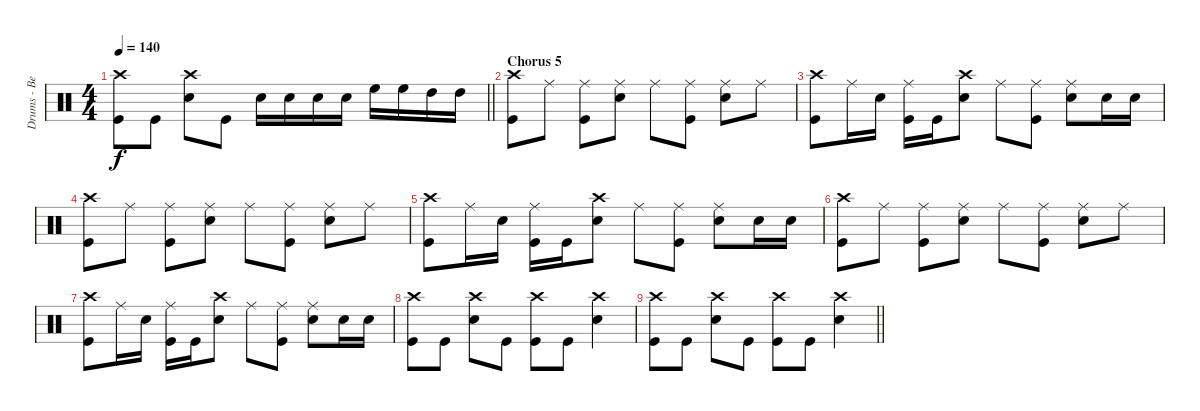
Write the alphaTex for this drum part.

\track ("Drums - Ben Johnston" "Drums - Be") {instrument percussion}
\staff {score}
\articulation defaults
\ts (4 4)
\tempo 140
\clef neutral
\barLineRight lightlight
\ks c
("Crash high (hit)" "Kick (hit)").8{dy f} "Kick (hit)".8 ("Crash high (hit)" "Snare (hit) 2").8 "Kick (hit)".8 "Snare (hit) 2".16 "Snare (hit) 2".16 "Snare (hit) 2".16 "Snare (hit) 2".16 "High Floor Tom (hit)".16 "High Floor Tom (hit)".16 "High Tom (hit)".16 "High Tom (hit)".16 |
\section ("" "Chorus 5")
("Crash high (hit)" "Kick (hit)").8 "Ride (middle)".8 ("Ride (middle)" "Kick (hit)").8 ("Ride (middle)" "Snare (hit) 2").8 "Ride (middle)".8 ("Ride (middle)" "Kick (hit)").8 ("Ride (middle)" "Snare (hit) 2").8 "Ride (middle)".8 |
("Crash high (hit)" "Kick (hit)").8 "Ride (middle)".16 "Snare (hit) 2".16 ("Ride (middle)" "Kick (hit)").16 "Kick (hit)".16 ("Crash high (hit)" "Snare (hit) 2").8 "Ride (middle)".8 ("Ride (middle)" "Kick (hit)").8 ("Ride (middle)" "Snare (hit) 2").8 "Snare (hit) 2".16 "Snare (hit) 2".16 |
("Crash high (hit)" "Kick (hit)").8 "Ride (middle)".8 ("Ride (middle)" "Kick (hit)").8 ("Ride (middle)" "Snare (hit) 2").8 "Ride (middle)".8 ("Ride (middle)" "Kick (hit)").8 ("Ride (middle)" "Snare (hit) 2").8 "Ride (middle)".8 |
("Crash high (hit)" "Kick (hit)").8 "Ride (middle)".16 "Snare (hit) 2".16 ("Ride (middle)" "Kick (hit)").16 "Kick (hit)".16 ("Crash high (hit)" "Snare (hit) 2").8 "Ride (middle)".8 ("Ride (middle)" "Kick (hit)").8 ("Ride (middle)" "Snare (hit) 2").8 "Snare (hit) 2".16 "Snare (hit) 2".16 |
("Crash high (hit)" "Kick (hit)").8 "Ride (middle)".8 ("Ride (middle)" "Kick (hit)").8 ("Ride (middle)" "Snare (hit) 2").8 "Ride (middle)".8 ("Ride (middle)" "Kick (hit)").8 ("Ride (middle)" "Snare (hit) 2").8 "Ride (middle)".8 |
("Crash high (hit)" "Kick (hit)").8 "Ride (middle)".16 "Snare (hit) 2".16 ("Ride (middle)" "Kick (hit)").16 "Kick (hit)".16 ("Crash high (hit)" "Snare (hit) 2").8 "Ride (middle)".8 ("Ride (middle)" "Kick (hit)").8 ("Ride (middle)" "Snare (hit) 2").8 "Snare (hit) 2".16 "Snare (hit) 2".16 |
("Crash high (hit)" "Kick (hit)").8 "Kick (hit)".8 ("Crash high (hit)" "Snare (hit) 2").8 "Kick (hit)".8 ("Crash high (hit)" "Kick (hit)").8 "Kick (hit)".8 ("Crash high (hit)" "Snare (hit) 2").4 |
\barLineRight lightlight
("Crash high (hit)" "Kick (hit)").8 "Kick (hit)".8 ("Crash high (hit)" "Snare (hit) 2").8 "Kick (hit)".8 ("Crash high (hit)" "Kick (hit)").8 "Kick (hit)".8 ("Crash high (hit)" "Snare (hit) 2").4
